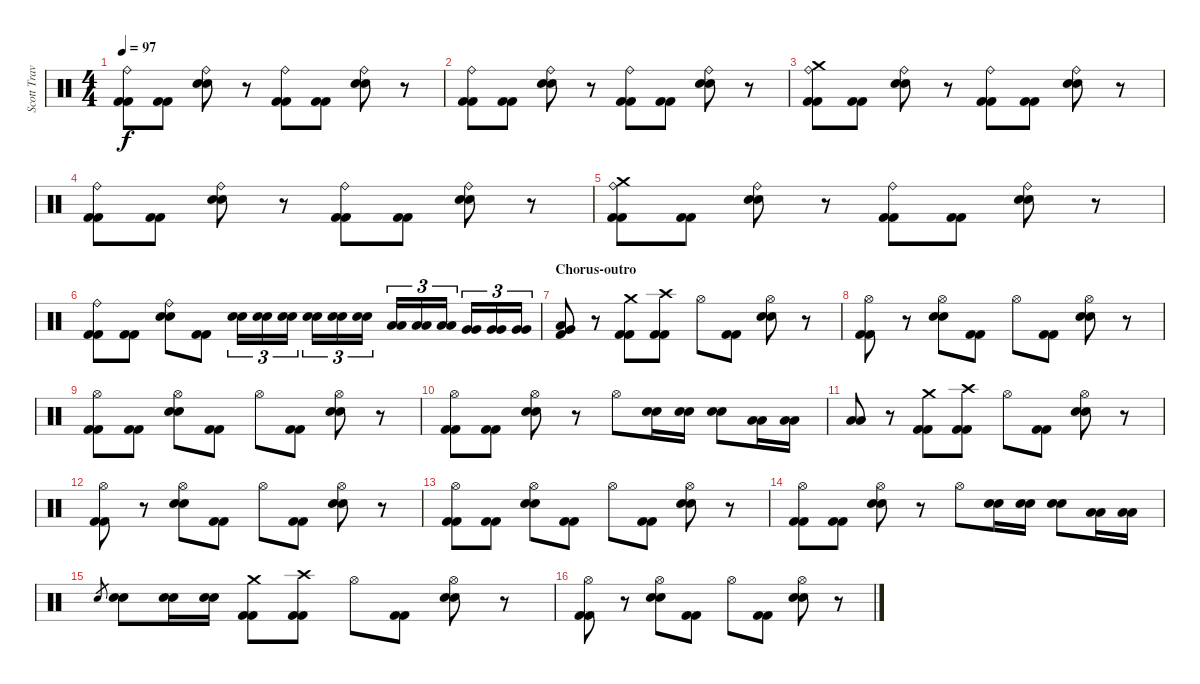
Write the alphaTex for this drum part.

\track ("Scott Travis" "Scott Trav") {instrument percussion}
\staff {score}
\articulation defaults
\ts (4 4)
\tempo 97
\clef neutral
\ks c
("Ride (bell)" "Kick (hit) 2" "Kick (hit) 2").8{dy f} ("Kick (hit) 2" "Kick (hit) 2").8 ("Ride (bell)" "Snare (hit) 2" "Snare (hit) 2").8 r.8 ("Ride (bell)" "Kick (hit) 2" "Kick (hit) 2").8 ("Kick (hit) 2" "Kick (hit) 2").8 ("Ride (bell)" "Snare (hit) 2" "Snare (hit) 2").8 r.8 |
("Ride (bell)" "Kick (hit) 2" "Kick (hit) 2").8 ("Kick (hit) 2" "Kick (hit) 2").8 ("Ride (bell)" "Snare (hit) 2" "Snare (hit) 2").8 r.8 ("Ride (bell)" "Kick (hit) 2" "Kick (hit) 2").8 ("Kick (hit) 2" "Kick (hit) 2").8 ("Ride (bell)" "Snare (hit) 2" "Snare (hit) 2").8 r.8 |
("Ride (bell)" "Crash medium (hit)" "Kick (hit) 2" "Kick (hit) 2").8 ("Kick (hit) 2" "Kick (hit) 2").8 ("Ride (bell)" "Snare (hit) 2" "Snare (hit) 2").8 r.8 ("Ride (bell)" "Kick (hit) 2" "Kick (hit) 2").8 ("Kick (hit) 2" "Kick (hit) 2").8 ("Ride (bell)" "Snare (hit) 2" "Snare (hit) 2").8 r.8 |
("Ride (bell)" "Kick (hit) 2" "Kick (hit) 2").8 ("Kick (hit) 2" "Kick (hit) 2").8 ("Ride (bell)" "Snare (hit) 2" "Snare (hit) 2").8 r.8 ("Ride (bell)" "Kick (hit) 2" "Kick (hit) 2").8 ("Kick (hit) 2" "Kick (hit) 2").8 ("Ride (bell)" "Snare (hit) 2" "Snare (hit) 2").8 r.8 |
("Ride (bell)" "Crash medium (hit)" "Kick (hit) 2" "Kick (hit) 2").8 ("Kick (hit) 2" "Kick (hit) 2").8 ("Ride (bell)" "Snare (hit) 2" "Snare (hit) 2").8 r.8 ("Ride (bell)" "Kick (hit) 2" "Kick (hit) 2").8 ("Kick (hit) 2" "Kick (hit) 2").8 ("Ride (bell)" "Snare (hit) 2" "Snare (hit) 2").8 r.8 |
("Ride (bell)" "Kick (hit) 2" "Kick (hit) 2").8 ("Kick (hit) 2" "Kick (hit) 2").8 ("Ride (bell)" "Snare (hit) 2" "Snare (hit) 2").8 ("Kick (hit) 2" "Kick (hit) 2").8 ("Snare (hit) 2" "Snare (hit) 2").16{tu (3 2)} ("Snare (hit) 2" "Snare (hit) 2").16{tu (3 2)} ("Snare (hit) 2" "Snare (hit) 2").16{tu (3 2)} ("Snare (hit) 2" "Snare (hit) 2").16{tu (3 2)} ("Snare (hit) 2" "Snare (hit) 2").16{tu (3 2)} ("Snare (hit) 2" "Snare (hit) 2").16{tu (3 2)} ("Low Tom (hit)" "Low Tom (hit)").16{tu (3 2)} ("Low Tom (hit)" "Low Tom (hit)").16{tu (3 2)} ("Low Tom (hit)" "Low Tom (hit)").16{tu (3 2)} ("Very Low Tom (hit)" "Very Low Tom (hit)").16{tu (3 2)} ("Very Low Tom (hit)" "Very Low Tom (hit)").16{tu (3 2)} ("Very Low Tom (hit)" "Very Low Tom (hit)").16{tu (3 2)} |
\section ("" "Chorus-outro")
("Low Tom (hit)" "Very Low Tom (hit)" "Kick (hit) 2").8 r.8 ("Crash medium (hit)" "Kick (hit) 2" "Kick (hit) 2").8 ("Crash high (hit)" "Kick (hit) 2" "Kick (hit) 2").8 "Hi-Hat (open)".8 ("Kick (hit) 2" "Kick (hit) 2").8 ("Hi-Hat (open)" "Snare (hit) 2" "Snare (hit) 2").8 r.8 |
("Hi-Hat (open)" "Kick (hit) 2" "Kick (hit) 2").8 r.8 ("Hi-Hat (open)" "Snare (hit) 2" "Snare (hit) 2").8 ("Kick (hit) 2" "Kick (hit) 2").8 "Hi-Hat (open)".8 ("Kick (hit) 2" "Kick (hit) 2").8 ("Hi-Hat (open)" "Snare (hit) 2" "Snare (hit) 2").8 r.8 |
("Hi-Hat (open)" "Kick (hit) 2" "Kick (hit) 2").8 ("Kick (hit) 2" "Kick (hit) 2").8 ("Hi-Hat (open)" "Snare (hit) 2" "Snare (hit) 2").8 ("Kick (hit) 2" "Kick (hit) 2").8 "Hi-Hat (open)".8 ("Kick (hit) 2" "Kick (hit) 2").8 ("Hi-Hat (open)" "Snare (hit) 2" "Snare (hit) 2").8 r.8 |
("Hi-Hat (open)" "Kick (hit) 2" "Kick (hit) 2").8 ("Kick (hit) 2" "Kick (hit) 2").8 ("Hi-Hat (open)" "Snare (hit) 2" "Snare (hit) 2").8 r.8 "Hi-Hat (open)".8 ("Snare (hit) 2" "Snare (hit) 2").16 ("Snare (hit) 2" "Snare (hit) 2").16 ("Snare (hit) 2" "Snare (hit) 2").8 ("Low Tom (hit)" "Low Tom (hit)").16 ("Low Tom (hit)" "Low Tom (hit)").16 |
("Low Tom (hit)" "Low Tom (hit)").8 r.8 ("Crash medium (hit)" "Kick (hit) 2" "Kick (hit) 2").8 ("Crash high (hit)" "Kick (hit) 2" "Kick (hit) 2").8 "Hi-Hat (open)".8 ("Kick (hit) 2" "Kick (hit) 2").8 ("Hi-Hat (open)" "Snare (hit) 2" "Snare (hit) 2").8 r.8 |
("Hi-Hat (open)" "Kick (hit) 2" "Kick (hit) 2").8 r.8 ("Hi-Hat (open)" "Snare (hit) 2" "Snare (hit) 2").8 ("Kick (hit) 2" "Kick (hit) 2").8 "Hi-Hat (open)".8 ("Kick (hit) 2" "Kick (hit) 2").8 ("Hi-Hat (open)" "Snare (hit) 2" "Snare (hit) 2").8 r.8 |
("Hi-Hat (open)" "Kick (hit) 2" "Kick (hit) 2").8 ("Kick (hit) 2" "Kick (hit) 2").8 ("Hi-Hat (open)" "Snare (hit) 2" "Snare (hit) 2").8 ("Kick (hit) 2" "Kick (hit) 2").8 "Hi-Hat (open)".8 ("Kick (hit) 2" "Kick (hit) 2").8 ("Hi-Hat (open)" "Snare (hit) 2" "Snare (hit) 2").8 r.8 |
("Hi-Hat (open)" "Kick (hit) 2" "Kick (hit) 2").8 ("Kick (hit) 2" "Kick (hit) 2").8 ("Hi-Hat (open)" "Snare (hit) 2" "Snare (hit) 2").8 r.8 "Hi-Hat (open)".8 ("Snare (hit) 2" "Snare (hit) 2").16 ("Snare (hit) 2" "Snare (hit) 2").16 ("Snare (hit) 2" "Snare (hit) 2").8 ("Low Tom (hit)" "Low Tom (hit)").16 ("Low Tom (hit)" "Low Tom (hit)").16 |
"Snare (hit) 2".8{gr} ("Snare (hit) 2" "Snare (hit) 2").8 ("Snare (hit) 2" "Snare (hit) 2").16 ("Snare (hit) 2" "Snare (hit) 2").16 ("Crash medium (hit)" "Kick (hit) 2" "Kick (hit) 2").8 ("Crash high (hit)" "Kick (hit) 2" "Kick (hit) 2").8 "Hi-Hat (open)".8 ("Kick (hit) 2" "Kick (hit) 2").8 ("Hi-Hat (open)" "Snare (hit) 2" "Snare (hit) 2").8 r.8 |
("Hi-Hat (open)" "Kick (hit) 2" "Kick (hit) 2").8 r.8 ("Hi-Hat (open)" "Snare (hit) 2" "Snare (hit) 2").8 ("Kick (hit) 2" "Kick (hit) 2").8 "Hi-Hat (open)".8 ("Kick (hit) 2" "Kick (hit) 2").8 ("Hi-Hat (open)" "Snare (hit) 2" "Snare (hit) 2").8 r.8
